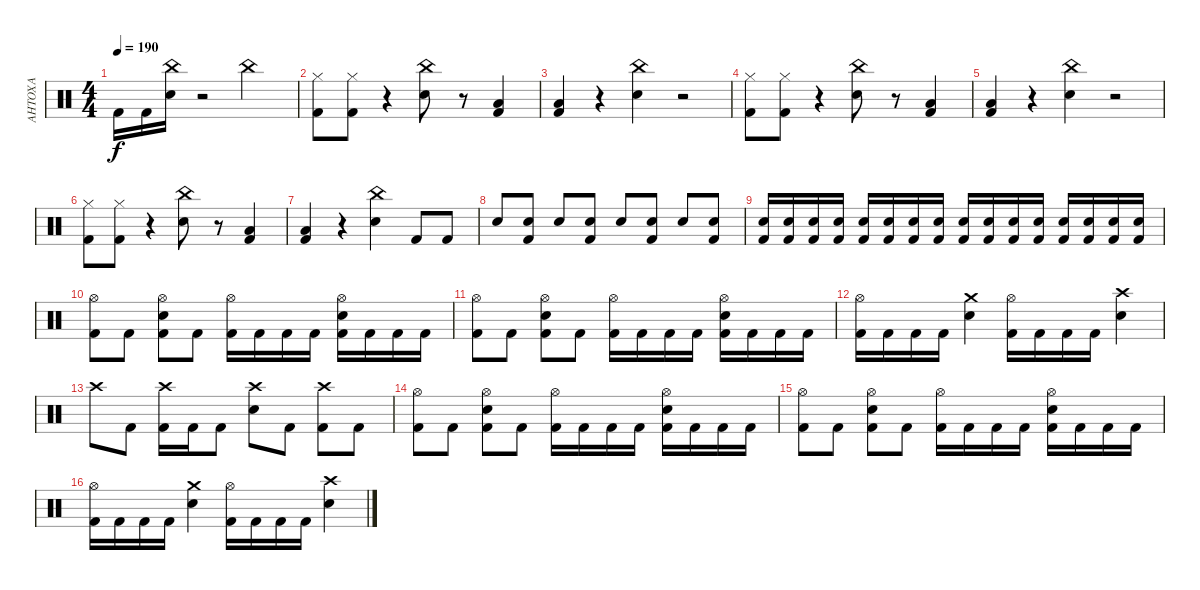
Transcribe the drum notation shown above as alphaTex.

\track ("АНТОХА" "АНТОХА") {instrument percussion}
\staff {score}
\articulation defaults
\ts (4 4)
\tempo 190
\clef neutral
\ks c "Kick (hit) 2".16{dy f} "Kick (hit) 2".16
("Electric Snare (hit)" "China (hit)").16 r.2 "China (hit)".2 |
("Kick (hit) 2" "Hi-Hat (closed)").8 ("Kick (hit) 2" "Hi-Hat (closed)").8 r.4 ("Electric Snare (hit)" "China (hit)").8 r.8 ("Kick (hit) 2" "Low Floor Tom (hit)").4 |
("Kick (hit) 2" "Low Floor Tom (hit)").4 r.4 ("Electric Snare (hit)" "China (hit)").4 r.2 |
("Kick (hit) 2" "Hi-Hat (closed)").8 ("Kick (hit) 2" "Hi-Hat (closed)").8 r.4 ("Electric Snare (hit)" "China (hit)").8 r.8 ("Kick (hit) 2" "Low Floor Tom (hit)").4 |
("Kick (hit) 2" "Low Floor Tom (hit)").4 r.4 ("Electric Snare (hit)" "China (hit)").4 r.2 |
("Kick (hit) 2" "Hi-Hat (closed)").8 ("Kick (hit) 2" "Hi-Hat (closed)").8 r.4 ("Electric Snare (hit)" "China (hit)").8 r.8 ("Kick (hit) 2" "Low Floor Tom (hit)").4 |
("Kick (hit) 2" "Low Floor Tom (hit)").4 r.4 ("Electric Snare (hit)" "China (hit)").4 "Kick (hit) 2".8 "Kick (hit) 2".8 |
"Electric Snare (hit)".8 ("Kick (hit) 2" "Electric Snare (hit)").8 "Electric Snare (hit)".8 ("Kick (hit) 2" "Electric Snare (hit)").8 "Electric Snare (hit)".8 ("Kick (hit) 2" "Electric Snare (hit)").8 "Electric Snare (hit)".8 ("Kick (hit) 2" "Electric Snare (hit)").8 |
("Electric Snare (hit)" "Kick (hit) 2").16 ("Electric Snare (hit)" "Kick (hit) 2").16 ("Electric Snare (hit)" "Kick (hit) 2").16 ("Electric Snare (hit)" "Kick (hit) 2").16 ("Electric Snare (hit)" "Kick (hit) 2").16 ("Electric Snare (hit)" "Kick (hit) 2").16 ("Electric Snare (hit)" "Kick (hit) 2").16 ("Electric Snare (hit)" "Kick (hit) 2").16 ("Electric Snare (hit)" "Kick (hit) 2").16 ("Electric Snare (hit)" "Kick (hit) 2").16 ("Electric Snare (hit)" "Kick (hit) 2").16 ("Electric Snare (hit)" "Kick (hit) 2").16 ("Electric Snare (hit)" "Kick (hit) 2").16 ("Electric Snare (hit)" "Kick (hit) 2").16 ("Electric Snare (hit)" "Kick (hit) 2").16 ("Electric Snare (hit)" "Kick (hit) 2").16 |
("Hi-Hat (open)" "Kick (hit) 2").8 "Kick (hit) 2".8 ("Hi-Hat (open)" "Electric Snare (hit)" "Kick (hit) 2").8 "Kick (hit) 2".8 ("Hi-Hat (open)" "Kick (hit) 2").16 "Kick (hit) 2".16 "Kick (hit) 2".16 "Kick (hit) 2".16 ("Hi-Hat (open)" "Electric Snare (hit)" "Kick (hit) 2").16 "Kick (hit) 2".16 "Kick (hit) 2".16 "Kick (hit) 2".16 |
("Hi-Hat (open)" "Kick (hit) 2").8 "Kick (hit) 2".8 ("Hi-Hat (open)" "Electric Snare (hit)" "Kick (hit) 2").8 "Kick (hit) 2".8 ("Hi-Hat (open)" "Kick (hit) 2").16 "Kick (hit) 2".16 "Kick (hit) 2".16 "Kick (hit) 2".16 ("Hi-Hat (open)" "Electric Snare (hit)" "Kick (hit) 2").16 "Kick (hit) 2".16 "Kick (hit) 2".16 "Kick (hit) 2".16 |
("Hi-Hat (open)" "Kick (hit) 2").16 "Kick (hit) 2".16 "Kick (hit) 2".16 "Kick (hit) 2".16 ("Crash medium (hit)" "Electric Snare (hit)").4 ("Hi-Hat (open)" "Kick (hit) 2").16 "Kick (hit) 2".16 "Kick (hit) 2".16 "Kick (hit) 2".16 ("Crash high (hit)" "Electric Snare (hit)").4 |
"Crash high (hit)".8 "Kick (hit) 2".8 ("Crash high (hit)" "Kick (hit) 2").16 "Kick (hit) 2".16 "Kick (hit) 2".8 ("Crash high (hit)" "Electric Snare (hit)").8 "Kick (hit) 2".8 ("Crash high (hit)" "Kick (hit) 2").8 "Kick (hit) 2".8 |
("Hi-Hat (open)" "Kick (hit) 2").8 "Kick (hit) 2".8 ("Hi-Hat (open)" "Electric Snare (hit)" "Kick (hit) 2").8 "Kick (hit) 2".8 ("Hi-Hat (open)" "Kick (hit) 2").16 "Kick (hit) 2".16 "Kick (hit) 2".16 "Kick (hit) 2".16 ("Hi-Hat (open)" "Electric Snare (hit)" "Kick (hit) 2").16 "Kick (hit) 2".16 "Kick (hit) 2".16 "Kick (hit) 2".16 |
("Hi-Hat (open)" "Kick (hit) 2").8 "Kick (hit) 2".8 ("Hi-Hat (open)" "Electric Snare (hit)" "Kick (hit) 2").8 "Kick (hit) 2".8 ("Hi-Hat (open)" "Kick (hit) 2").16 "Kick (hit) 2".16 "Kick (hit) 2".16 "Kick (hit) 2".16 ("Hi-Hat (open)" "Electric Snare (hit)" "Kick (hit) 2").16 "Kick (hit) 2".16 "Kick (hit) 2".16 "Kick (hit) 2".16 |
("Hi-Hat (open)" "Kick (hit) 2").16 "Kick (hit) 2".16 "Kick (hit) 2".16 "Kick (hit) 2".16 ("Crash medium (hit)" "Electric Snare (hit)").4 ("Hi-Hat (open)" "Kick (hit) 2").16 "Kick (hit) 2".16 "Kick (hit) 2".16 "Kick (hit) 2".16 ("Crash high (hit)" "Electric Snare (hit)").4
